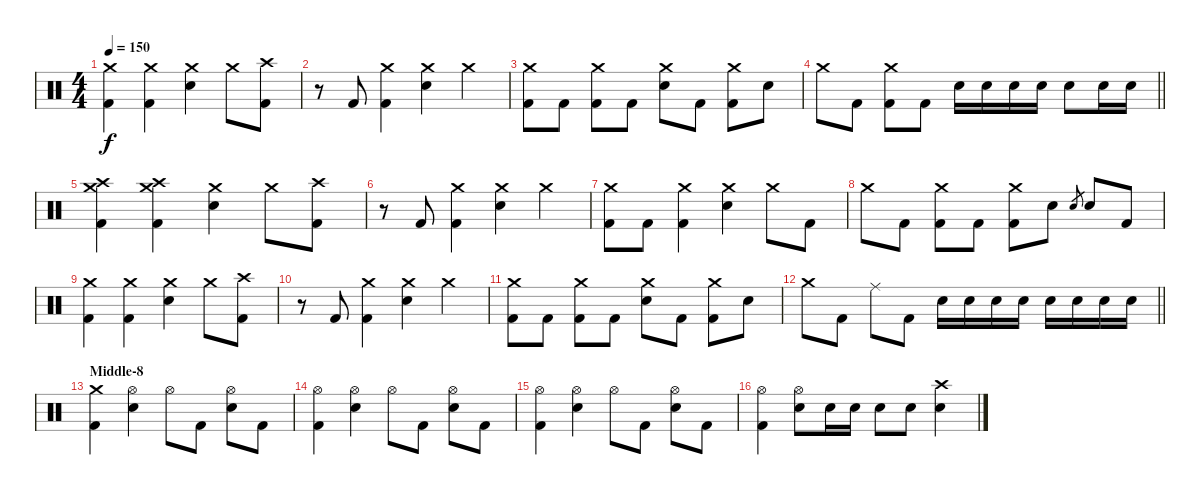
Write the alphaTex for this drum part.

\track "" {instrument percussion}
\staff {score}
\articulation defaults
\ts (4 4)
\tempo 150
\clef neutral
\ks c
("Crash medium (hit)" "Kick (hit) 2").4{dy f} ("Crash medium (hit)" "Kick (hit) 2").4 ("Crash medium (hit)" "Electric Snare (hit)").4 "Crash medium (hit)".8 ("Crash high (hit)" "Kick (hit) 2").8 |
r.8 "Kick (hit) 2".8 ("Crash medium (hit)" "Kick (hit) 2").4 ("Crash medium (hit)" "Electric Snare (hit)").4 "Crash medium (hit)".4 |
("Crash medium (hit)" "Kick (hit) 2").8 "Kick (hit) 2".8 ("Crash medium (hit)" "Kick (hit) 2").8 "Kick (hit) 2".8 ("Crash medium (hit)" "Electric Snare (hit)").8 "Kick (hit) 2".8 ("Crash medium (hit)" "Kick (hit) 2").8 "Electric Snare (hit)".8 |
\barLineRight lightlight "Crash medium (hit)".8 "Kick (hit) 2".8
("Crash medium (hit)" "Kick (hit) 2").8 "Kick (hit) 2".8 "Electric Snare (hit)".16 "Electric Snare (hit)".16 "Electric Snare (hit)".16 "Electric Snare (hit)".16 "Electric Snare (hit)".8 "Electric Snare (hit)".16 "Electric Snare (hit)".16 |
("Crash medium (hit)" "Crash high (hit)" "Kick (hit) 2").4 ("Crash medium (hit)" "Crash high (hit)" "Kick (hit) 2").4 ("Crash medium (hit)" "Electric Snare (hit)").4 "Crash medium (hit)".8 ("Crash high (hit)" "Kick (hit) 2").8 |
r.8 "Kick (hit) 2".8 ("Crash medium (hit)" "Kick (hit) 2").4 ("Crash medium (hit)" "Electric Snare (hit)").4 "Crash medium (hit)".4 |
("Crash medium (hit)" "Kick (hit) 2").8 "Kick (hit) 2".8 ("Crash medium (hit)" "Kick (hit) 2").4 ("Crash medium (hit)" "Electric Snare (hit)").4 "Crash medium (hit)".8 "Kick (hit) 2".8 |
"Crash medium (hit)".8 "Kick (hit) 2".8 ("Crash medium (hit)" "Kick (hit) 2").8 "Kick (hit) 2".8 ("Crash medium (hit)" "Kick (hit) 2").8 "Electric Snare (hit)".8 "Electric Snare (hit)".8{gr} "Electric Snare (hit)".8 "Kick (hit) 2".8 |
("Crash medium (hit)" "Kick (hit) 2").4 ("Crash medium (hit)" "Kick (hit) 2").4 ("Crash medium (hit)" "Electric Snare (hit)").4 "Crash medium (hit)".8 ("Crash high (hit)" "Kick (hit) 2").8 |
r.8 "Kick (hit) 2".8 ("Crash medium (hit)" "Kick (hit) 2").4 ("Crash medium (hit)" "Electric Snare (hit)").4 "Crash medium (hit)".4 |
("Crash medium (hit)" "Kick (hit) 2").8 "Kick (hit) 2".8 ("Crash medium (hit)" "Kick (hit) 2").8 "Kick (hit) 2".8 ("Crash medium (hit)" "Electric Snare (hit)").8 "Kick (hit) 2".8 ("Crash medium (hit)" "Kick (hit) 2").8 "Electric Snare (hit)".8 |
\barLineRight lightlight "Crash medium (hit)".8 "Kick (hit) 2".8 "Ride (middle)".8 "Kick (hit) 2".8 "Electric Snare (hit)".16 "Electric Snare (hit)".16 "Electric Snare (hit)".16 "Electric Snare (hit)".16 "Electric Snare (hit)".16 "Electric Snare (hit)".16 "Electric Snare (hit)".16 "Electric Snare (hit)".16
|
\section ("" "Middle-8")
("Crash medium (hit)" "Kick (hit) 2").4 ("Hi-Hat (open)" "Electric Snare (hit)").4 "Hi-Hat (open)".8 "Kick (hit) 2".8 ("Hi-Hat (open)" "Electric Snare (hit)").8 "Kick (hit) 2".8 |
("Hi-Hat (open)" "Kick (hit) 2").4 ("Hi-Hat (open)" "Electric Snare (hit)").4 "Hi-Hat (open)".8 "Kick (hit) 2".8 ("Hi-Hat (open)" "Electric Snare (hit)").8 "Kick (hit) 2".8 |
("Hi-Hat (open)" "Kick (hit) 2").4 ("Hi-Hat (open)" "Electric Snare (hit)").4 "Hi-Hat (open)".8 "Kick (hit) 2".8 ("Hi-Hat (open)" "Electric Snare (hit)").8 "Kick (hit) 2".8 |
("Hi-Hat (open)" "Kick (hit) 2").4 ("Hi-Hat (open)" "Electric Snare (hit)").8 "Electric Snare (hit)".16 "Electric Snare (hit)".16 "Electric Snare (hit)".8 "Electric Snare (hit)".8 ("Crash high (hit)" "Electric Snare (hit)").4
